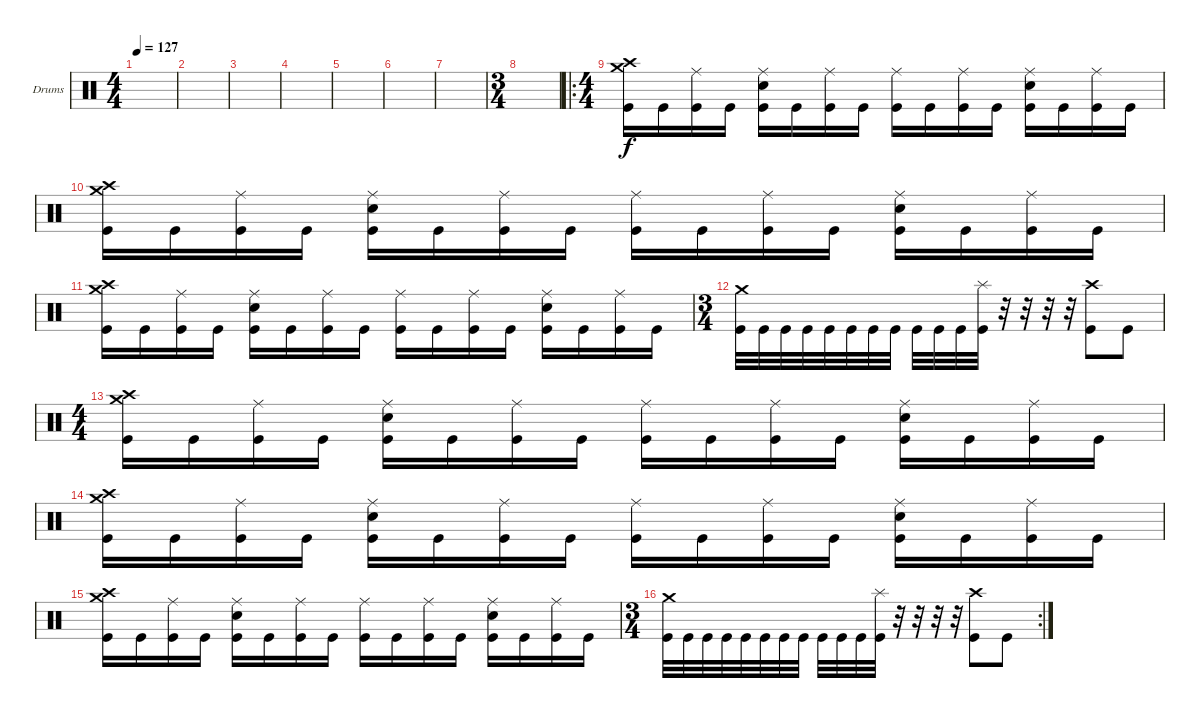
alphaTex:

\defaultSystemsLayout 4
\bracketExtendMode groupsimilarinstruments
\firstSystemTrackNameOrientation horizontal
\otherSystemsTrackNameOrientation horizontal
\track ("Incubus" "Drums") {instrument percussion}
\staff {score}
\articulation defaults
\ts (4 4)
\tempo 127
\clef neutral
\scale
0.322034
\ks c
|
\scale
0.322034 |
\scale
0.333333 |
\scale
0.333333 |
\scale
0.333333 |
\scale
0.263889 |
\scale
0.263889 |
\ts (3 4)
\scale
0.472222 |
\ro
\ts (4 4)
\scale
0.5 ("Kick (hit)" "Crash medium (hit)" "Crash high (hit)").16 "Kick (hit)".16 ("Kick (hit)" "Ride (middle)").16 "Kick (hit)".16 ("Kick (hit)" "Snare (hit) 2" "Ride (middle)").16 "Kick (hit)".16 ("Kick (hit)" "Ride (middle)").16 "Kick (hit)".16 ("Kick (hit)" "Ride (middle)").16 "Kick (hit)".16 ("Kick (hit)" "Ride (middle)").16 "Kick (hit)".16 ("Kick (hit)" "Snare (hit) 2" "Ride (middle)").16 "Kick (hit)".16 ("Kick (hit)" "Ride (middle)").16 "Kick (hit)".16 |
\scale
0.25 ("Kick (hit)" "Crash medium (hit)" "Crash high (hit)").16 "Kick (hit)".16 ("Kick (hit)" "Ride (middle)").16 "Kick (hit)".16 ("Kick (hit)" "Snare (hit) 2" "Ride (middle)").16 "Kick (hit)".16 ("Kick (hit)" "Ride (middle)").16 "Kick (hit)".16 ("Kick (hit)" "Ride (middle)").16 "Kick (hit)".16 ("Kick (hit)" "Ride (middle)").16 "Kick (hit)".16 ("Kick (hit)" "Snare (hit) 2" "Ride (middle)").16 "Kick (hit)".16 ("Kick (hit)" "Ride (middle)").16 "Kick (hit)".16 |
\scale
0.25 ("Kick (hit)" "Crash medium (hit)" "Crash high (hit)").16 "Kick (hit)".16 ("Kick (hit)" "Ride (middle)").16 "Kick (hit)".16 ("Kick (hit)" "Snare (hit) 2" "Ride (middle)").16 "Kick (hit)".16 ("Kick (hit)" "Ride (middle)").16 "Kick (hit)".16 ("Kick (hit)" "Ride (middle)").16 "Kick (hit)".16 ("Kick (hit)" "Ride (middle)").16 "Kick (hit)".16 ("Kick (hit)" "Snare (hit) 2" "Ride (middle)").16 "Kick (hit)".16 ("Kick (hit)" "Ride (middle)").16 "Kick (hit)".16 |
\ts (3 4)
\scale
0.390805 ("Kick (hit)" "Crash medium (hit)").32 "Kick (hit)".32 "Kick (hit)".32 "Kick (hit)".32 "Kick (hit)".32 "Kick (hit)".32 "Kick (hit)".32 "Kick (hit)".32 "Kick (hit)".32 "Kick (hit)".32 "Kick (hit)".32 ("Kick (hit)" "Splash (hit)").32 r.32 r.32 r.32 r.32 ("Kick (hit)" "Crash high (hit)").8 "Kick (hit)".8 |
\ts (4 4)
\scale
0.390805 ("Kick (hit)" "Crash medium (hit)" "Crash high (hit)").16 "Kick (hit)".16 ("Kick (hit)" "Ride (middle)").16 "Kick (hit)".16 ("Kick (hit)" "Snare (hit) 2" "Ride (middle)").16 "Kick (hit)".16 ("Kick (hit)" "Ride (middle)").16 "Kick (hit)".16 ("Kick (hit)" "Ride (middle)").16 "Kick (hit)".16 ("Kick (hit)" "Ride (middle)").16 "Kick (hit)".16 ("Kick (hit)" "Snare (hit) 2" "Ride (middle)").16 "Kick (hit)".16 ("Kick (hit)" "Ride (middle)").16 "Kick (hit)".16 |
\scale
0.218391 ("Kick (hit)" "Crash medium (hit)" "Crash high (hit)").16 "Kick (hit)".16 ("Kick (hit)" "Ride (middle)").16 "Kick (hit)".16 ("Kick (hit)" "Snare (hit) 2" "Ride (middle)").16 "Kick (hit)".16 ("Kick (hit)" "Ride (middle)").16 "Kick (hit)".16 ("Kick (hit)" "Ride (middle)").16 "Kick (hit)".16 ("Kick (hit)" "Ride (middle)").16 "Kick (hit)".16 ("Kick (hit)" "Snare (hit) 2" "Ride (middle)").16 "Kick (hit)".16 ("Kick (hit)" "Ride (middle)").16 "Kick (hit)".16 |
\scale
0.204301 ("Kick (hit)" "Crash medium (hit)" "Crash high (hit)").16 "Kick (hit)".16 ("Kick (hit)" "Ride (middle)").16 "Kick (hit)".16 ("Kick (hit)" "Snare (hit) 2" "Ride (middle)").16 "Kick (hit)".16 ("Kick (hit)" "Ride (middle)").16 "Kick (hit)".16 ("Kick (hit)" "Ride (middle)").16 "Kick (hit)".16 ("Kick (hit)" "Ride (middle)").16 "Kick (hit)".16 ("Kick (hit)" "Snare (hit) 2" "Ride (middle)").16 "Kick (hit)".16 ("Kick (hit)" "Ride (middle)").16 "Kick (hit)".16 |
\rc 2
\ts (3 4)
\scale
0.387097 ("Kick (hit)" "Crash medium (hit)").32 "Kick (hit)".32 "Kick (hit)".32 "Kick (hit)".32 "Kick (hit)".32 "Kick (hit)".32 "Kick (hit)".32 "Kick (hit)".32 "Kick (hit)".32 "Kick (hit)".32 "Kick (hit)".32 ("Kick (hit)" "Splash (hit)").32 r.32 r.32 r.32 r.32 ("Kick (hit)" "Crash high (hit)").8 "Kick (hit)".8
